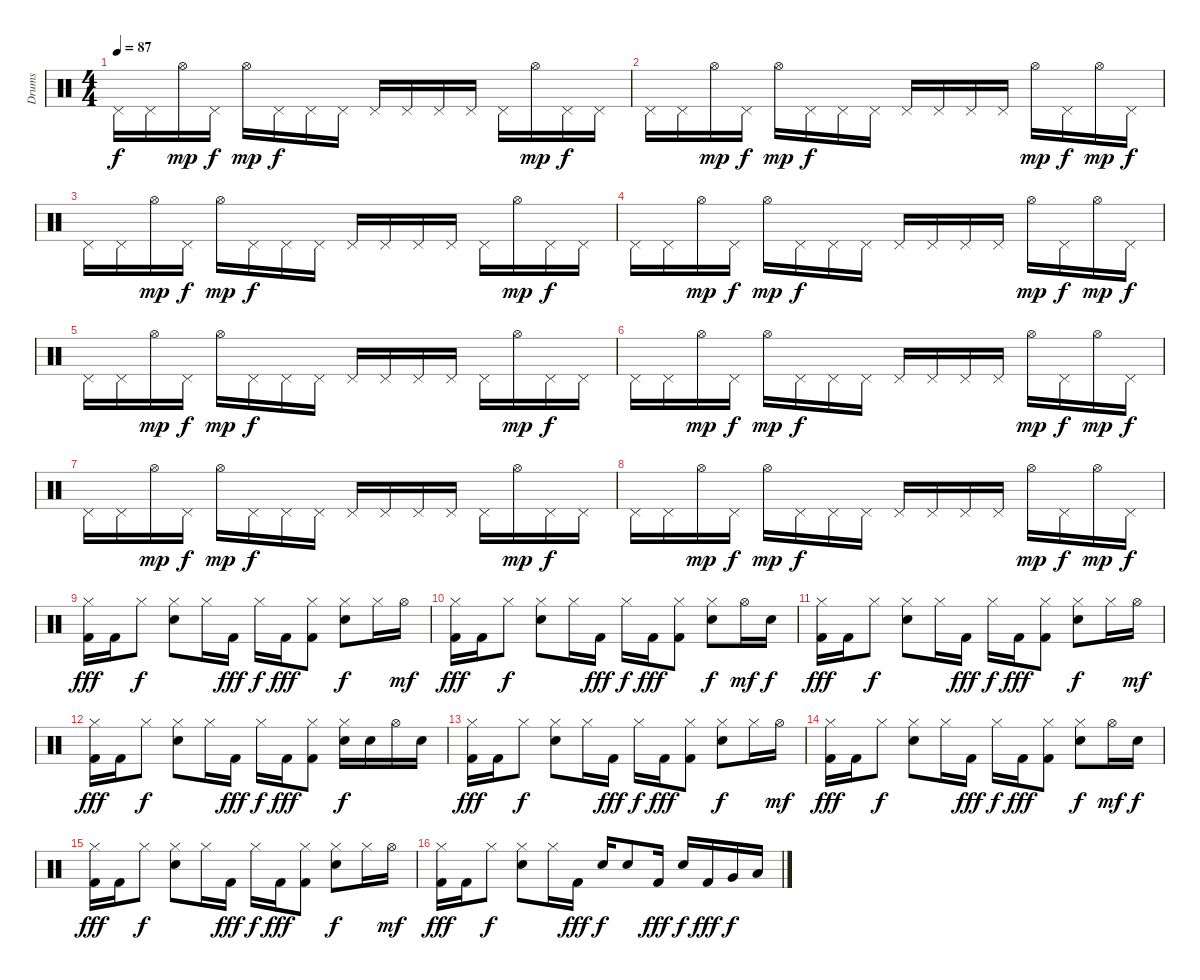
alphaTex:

\track ("Drums" "Drums") {instrument percussion}
\staff {score}
\articulation defaults
\ts (4 4)
\tempo 87
\clef neutral
\ks c "Pedal Hi-Hat (hit)".16{dy f} "Pedal Hi-Hat (hit)".16 "Hi-Hat (open)".16{dy mp} "Pedal Hi-Hat (hit)".16{dy f} "Hi-Hat (open)".16{dy mp} "Pedal Hi-Hat (hit)".16{dy f} "Pedal Hi-Hat (hit)".16 "Pedal Hi-Hat (hit)".16 "Pedal Hi-Hat (hit)".16 "Pedal Hi-Hat (hit)".16 "Pedal Hi-Hat (hit)".16 "Pedal Hi-Hat (hit)".16 "Pedal Hi-Hat (hit)".16 "Hi-Hat (open)".16{dy mp} "Pedal Hi-Hat (hit)".16{dy f} "Pedal Hi-Hat (hit)".16
|
"Pedal Hi-Hat (hit)".16 "Pedal Hi-Hat (hit)".16 "Hi-Hat (open)".16{dy mp} "Pedal Hi-Hat (hit)".16{dy f} "Hi-Hat (open)".16{dy mp} "Pedal Hi-Hat (hit)".16{dy f} "Pedal Hi-Hat (hit)".16 "Pedal Hi-Hat (hit)".16 "Pedal Hi-Hat (hit)".16 "Pedal Hi-Hat (hit)".16 "Pedal Hi-Hat (hit)".16 "Pedal Hi-Hat (hit)".16 "Hi-Hat (open)".16{dy mp} "Pedal Hi-Hat (hit)".16{dy f} "Hi-Hat (open)".16{dy mp} "Pedal Hi-Hat (hit)".16{dy f} |
"Pedal Hi-Hat (hit)".16 "Pedal Hi-Hat (hit)".16 "Hi-Hat (open)".16{dy mp} "Pedal Hi-Hat (hit)".16{dy f} "Hi-Hat (open)".16{dy mp} "Pedal Hi-Hat (hit)".16{dy f} "Pedal Hi-Hat (hit)".16 "Pedal Hi-Hat (hit)".16 "Pedal Hi-Hat (hit)".16 "Pedal Hi-Hat (hit)".16 "Pedal Hi-Hat (hit)".16 "Pedal Hi-Hat (hit)".16 "Pedal Hi-Hat (hit)".16 "Hi-Hat (open)".16{dy mp} "Pedal Hi-Hat (hit)".16{dy f} "Pedal Hi-Hat (hit)".16 |
"Pedal Hi-Hat (hit)".16 "Pedal Hi-Hat (hit)".16 "Hi-Hat (open)".16{dy mp} "Pedal Hi-Hat (hit)".16{dy f} "Hi-Hat (open)".16{dy mp} "Pedal Hi-Hat (hit)".16{dy f} "Pedal Hi-Hat (hit)".16 "Pedal Hi-Hat (hit)".16 "Pedal Hi-Hat (hit)".16 "Pedal Hi-Hat (hit)".16 "Pedal Hi-Hat (hit)".16 "Pedal Hi-Hat (hit)".16 "Hi-Hat (open)".16{dy mp} "Pedal Hi-Hat (hit)".16{dy f} "Hi-Hat (open)".16{dy mp} "Pedal Hi-Hat (hit)".16{dy f} |
"Pedal Hi-Hat (hit)".16 "Pedal Hi-Hat (hit)".16 "Hi-Hat (open)".16{dy mp} "Pedal Hi-Hat (hit)".16{dy f} "Hi-Hat (open)".16{dy mp} "Pedal Hi-Hat (hit)".16{dy f} "Pedal Hi-Hat (hit)".16 "Pedal Hi-Hat (hit)".16 "Pedal Hi-Hat (hit)".16 "Pedal Hi-Hat (hit)".16 "Pedal Hi-Hat (hit)".16 "Pedal Hi-Hat (hit)".16 "Pedal Hi-Hat (hit)".16 "Hi-Hat (open)".16{dy mp} "Pedal Hi-Hat (hit)".16{dy f} "Pedal Hi-Hat (hit)".16 |
"Pedal Hi-Hat (hit)".16 "Pedal Hi-Hat (hit)".16 "Hi-Hat (open)".16{dy mp} "Pedal Hi-Hat (hit)".16{dy f} "Hi-Hat (open)".16{dy mp} "Pedal Hi-Hat (hit)".16{dy f} "Pedal Hi-Hat (hit)".16 "Pedal Hi-Hat (hit)".16 "Pedal Hi-Hat (hit)".16 "Pedal Hi-Hat (hit)".16 "Pedal Hi-Hat (hit)".16 "Pedal Hi-Hat (hit)".16 "Hi-Hat (open)".16{dy mp} "Pedal Hi-Hat (hit)".16{dy f} "Hi-Hat (open)".16{dy mp} "Pedal Hi-Hat (hit)".16{dy f} |
"Pedal Hi-Hat (hit)".16 "Pedal Hi-Hat (hit)".16 "Hi-Hat (open)".16{dy mp} "Pedal Hi-Hat (hit)".16{dy f} "Hi-Hat (open)".16{dy mp} "Pedal Hi-Hat (hit)".16{dy f} "Pedal Hi-Hat (hit)".16 "Pedal Hi-Hat (hit)".16 "Pedal Hi-Hat (hit)".16 "Pedal Hi-Hat (hit)".16 "Pedal Hi-Hat (hit)".16 "Pedal Hi-Hat (hit)".16 "Pedal Hi-Hat (hit)".16 "Hi-Hat (open)".16{dy mp} "Pedal Hi-Hat (hit)".16{dy f} "Pedal Hi-Hat (hit)".16 |
"Pedal Hi-Hat (hit)".16 "Pedal Hi-Hat (hit)".16 "Hi-Hat (open)".16{dy mp} "Pedal Hi-Hat (hit)".16{dy f} "Hi-Hat (open)".16{dy mp} "Pedal Hi-Hat (hit)".16{dy f} "Pedal Hi-Hat (hit)".16 "Pedal Hi-Hat (hit)".16 "Pedal Hi-Hat (hit)".16 "Pedal Hi-Hat (hit)".16 "Pedal Hi-Hat (hit)".16 "Pedal Hi-Hat (hit)".16 "Hi-Hat (open)".16{dy mp} "Pedal Hi-Hat (hit)".16{dy f} "Hi-Hat (open)".16{dy mp} "Pedal Hi-Hat (hit)".16{dy f} |
("Hi-Hat (closed)" "Kick (hit) 2").16{dy fff} "Kick (hit) 2".16 "Hi-Hat (closed)".8{dy f} ("Hi-Hat (closed)" "Snare (hit) 2").8 "Hi-Hat (closed)".16 "Kick (hit) 2".16{dy fff} "Hi-Hat (closed)".16{dy f} "Kick (hit) 2".16{dy fff} ("Hi-Hat (closed)" "Kick (hit) 2").8 ("Hi-Hat (closed)" "Snare (hit) 2").8{dy f} "Hi-Hat (closed)".16 "Hi-Hat (open)".16{dy mf} |
("Hi-Hat (closed)" "Kick (hit) 2").16{dy fff} "Kick (hit) 2".16 "Hi-Hat (closed)".8{dy f} ("Hi-Hat (closed)" "Snare (hit) 2").8 "Hi-Hat (closed)".16 "Kick (hit) 2".16{dy fff} "Hi-Hat (closed)".16{dy f} "Kick (hit) 2".16{dy fff} ("Hi-Hat (closed)" "Kick (hit) 2").8 ("Hi-Hat (closed)" "Snare (hit) 2").8{dy f} "Hi-Hat (open)".16{dy mf} "Snare (hit) 2".16{dy f} |
("Hi-Hat (closed)" "Kick (hit) 2").16{dy fff} "Kick (hit) 2".16 "Hi-Hat (closed)".8{dy f} ("Hi-Hat (closed)" "Snare (hit) 2").8 "Hi-Hat (closed)".16 "Kick (hit) 2".16{dy fff} "Hi-Hat (closed)".16{dy f} "Kick (hit) 2".16{dy fff} ("Hi-Hat (closed)" "Kick (hit) 2").8 ("Hi-Hat (closed)" "Snare (hit) 2").8{dy f} "Hi-Hat (closed)".16 "Hi-Hat (open)".16{dy mf} |
("Hi-Hat (closed)" "Kick (hit) 2").16{dy fff} "Kick (hit) 2".16 "Hi-Hat (closed)".8{dy f} ("Hi-Hat (closed)" "Snare (hit) 2").8 "Hi-Hat (closed)".16 "Kick (hit) 2".16{dy fff} "Hi-Hat (closed)".16{dy f} "Kick (hit) 2".16{dy fff} ("Hi-Hat (closed)" "Kick (hit) 2").8 ("Hi-Hat (closed)" "Snare (hit) 2").16{dy f} "Snare (hit) 2".16 "Hi-Hat (open)".16 "Snare (hit) 2".16 |
("Hi-Hat (closed)" "Kick (hit) 2").16{dy fff} "Kick (hit) 2".16 "Hi-Hat (closed)".8{dy f} ("Hi-Hat (closed)" "Snare (hit) 2").8 "Hi-Hat (closed)".16 "Kick (hit) 2".16{dy fff} "Hi-Hat (closed)".16{dy f} "Kick (hit) 2".16{dy fff} ("Hi-Hat (closed)" "Kick (hit) 2").8 ("Hi-Hat (closed)" "Snare (hit) 2").8{dy f} "Hi-Hat (closed)".16 "Hi-Hat (open)".16{dy mf} |
("Hi-Hat (closed)" "Kick (hit) 2").16{dy fff} "Kick (hit) 2".16 "Hi-Hat (closed)".8{dy f} ("Hi-Hat (closed)" "Snare (hit) 2").8 "Hi-Hat (closed)".16 "Kick (hit) 2".16{dy fff} "Hi-Hat (closed)".16{dy f} "Kick (hit) 2".16{dy fff} ("Hi-Hat (closed)" "Kick (hit) 2").8 ("Hi-Hat (closed)" "Snare (hit) 2").8{dy f} "Hi-Hat (open)".16{dy mf} "Snare (hit) 2".16{dy f} |
("Hi-Hat (closed)" "Kick (hit) 2").16{dy fff} "Kick (hit) 2".16 "Hi-Hat (closed)".8{dy f} ("Hi-Hat (closed)" "Snare (hit) 2").8 "Hi-Hat (closed)".16 "Kick (hit) 2".16{dy fff} "Hi-Hat (closed)".16{dy f} "Kick (hit) 2".16{dy fff} ("Hi-Hat (closed)" "Kick (hit) 2").8 ("Hi-Hat (closed)" "Snare (hit) 2").8{dy f} "Hi-Hat (closed)".16 "Hi-Hat (open)".16{dy mf} |
("Hi-Hat (closed)" "Kick (hit) 2").16{dy fff} "Kick (hit) 2".16 "Hi-Hat (closed)".8{dy f} ("Hi-Hat (closed)" "Snare (hit) 2").8 "Hi-Hat (closed)".16 "Kick (hit) 2".16{dy fff} "Snare (hit) 2".16{dy f volume 15 balance 5} "Snare (hit) 2".8 "Kick (hit) 2".16{dy fff} "Snare (hit) 2".16{dy f} "Kick (hit) 2".16{dy fff} "Very Low Tom (hit)".16{dy f} "Low Floor Tom (hit)".16
